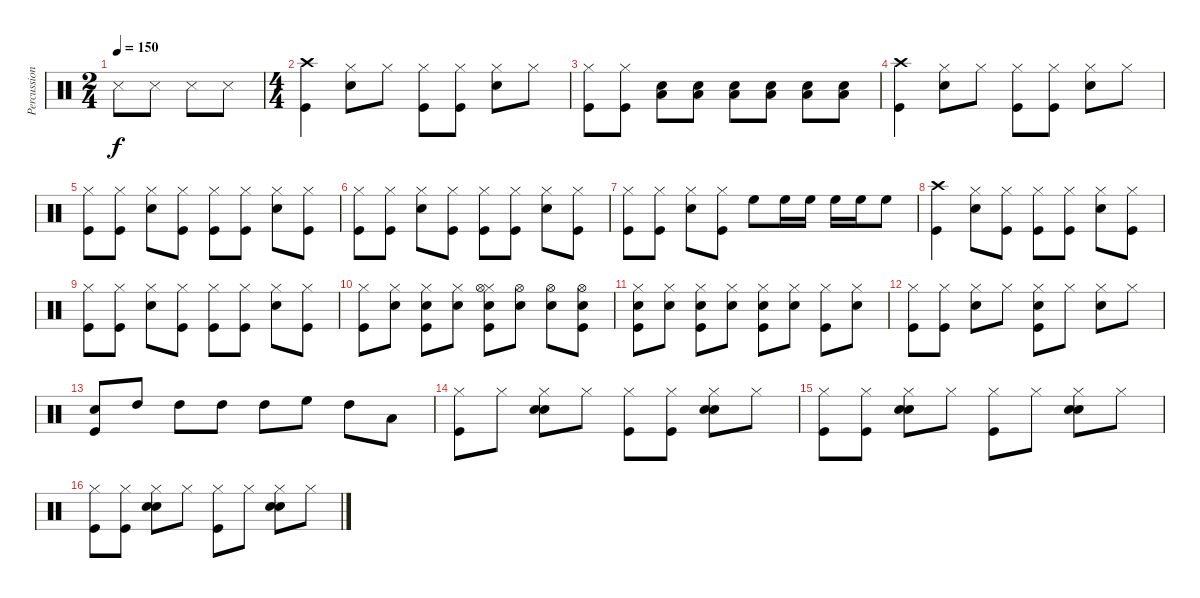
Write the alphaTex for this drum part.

\track ("Percussion" "Percussion") {instrument percussion}
\staff {score}
\articulation defaults
\ts (2 4)
\tempo 150
\clef neutral
\ks c "Snare (side stick) 3".8{dy f} "Snare (side stick) 3".8 "Snare (side stick) 3".8 "Snare (side stick) 3".8
|
\ts (4 4)
("Crash high (hit)" "Kick (hit)").4 ("Hi-Hat (closed)" "Snare (hit) 2").8 "Hi-Hat (closed)".8 ("Hi-Hat (closed)" "Kick (hit)").8 ("Hi-Hat (closed)" "Kick (hit)").8 ("Hi-Hat (closed)" "Snare (hit) 2").8 "Hi-Hat (closed)".8 |
("Hi-Hat (closed)" "Kick (hit)").8 ("Hi-Hat (closed)" "Kick (hit)").8 ("Snare (hit) 2" "Low Tom (hit)").8 ("Snare (hit) 2" "Low Tom (hit)").8 ("Snare (hit) 2" "Low Tom (hit)").8 ("Snare (hit) 2" "Low Tom (hit)").8 ("Snare (hit) 2" "Low Tom (hit)").8 ("Snare (hit) 2" "Low Tom (hit)").8 |
("Crash high (hit)" "Kick (hit)").4 ("Hi-Hat (closed)" "Snare (hit) 2").8 "Hi-Hat (closed)".8 ("Hi-Hat (closed)" "Kick (hit)").8 ("Hi-Hat (closed)" "Kick (hit)").8 ("Hi-Hat (closed)" "Snare (hit) 2").8 "Hi-Hat (closed)".8 |
("Hi-Hat (closed)" "Kick (hit)").8 ("Hi-Hat (closed)" "Kick (hit)").8 ("Hi-Hat (closed)" "Snare (hit) 2").8 ("Hi-Hat (closed)" "Kick (hit)").8 ("Hi-Hat (closed)" "Kick (hit)").8 ("Hi-Hat (closed)" "Kick (hit)").8 ("Hi-Hat (closed)" "Snare (hit) 2").8 ("Hi-Hat (closed)" "Kick (hit)").8 |
("Hi-Hat (closed)" "Kick (hit)").8 ("Hi-Hat (closed)" "Kick (hit)").8 ("Hi-Hat (closed)" "Snare (hit) 2").8 ("Hi-Hat (closed)" "Kick (hit)").8 ("Hi-Hat (closed)" "Kick (hit)").8 ("Hi-Hat (closed)" "Kick (hit)").8 ("Hi-Hat (closed)" "Snare (hit) 2").8 ("Hi-Hat (closed)" "Kick (hit)").8 |
("Hi-Hat (closed)" "Kick (hit)").8 ("Hi-Hat (closed)" "Kick (hit)").8 ("Hi-Hat (closed)" "Snare (hit) 2").8 ("Hi-Hat (closed)" "Kick (hit)").8 "High Floor Tom (hit)".8 "High Floor Tom (hit)".16 "High Floor Tom (hit)".16 "High Floor Tom (hit)".16 "High Floor Tom (hit)".16 "High Floor Tom (hit)".8 |
("Crash high (hit)" "Kick (hit)").4 ("Hi-Hat (closed)" "Snare (hit) 2").8 ("Hi-Hat (closed)" "Kick (hit)").8 ("Hi-Hat (closed)" "Kick (hit)").8 ("Hi-Hat (closed)" "Kick (hit)").8 ("Hi-Hat (closed)" "Snare (hit) 2").8 ("Hi-Hat (closed)" "Kick (hit)").8 |
("Hi-Hat (closed)" "Kick (hit)").8 ("Hi-Hat (closed)" "Kick (hit)").8 ("Hi-Hat (closed)" "Snare (hit) 2").8 ("Hi-Hat (closed)" "Kick (hit)").8 ("Hi-Hat (closed)" "Kick (hit)").8 ("Hi-Hat (closed)" "Kick (hit)").8 ("Hi-Hat (closed)" "Snare (hit) 2").8 ("Hi-Hat (closed)" "Kick (hit)").8 |
("Hi-Hat (closed)" "Kick (hit)").8 ("Hi-Hat (closed)" "Snare (hit) 2").8 ("Hi-Hat (closed)" "Snare (hit) 2" "Kick (hit)").8 ("Hi-Hat (closed)" "Snare (hit) 2").8 ("Hi-Hat (closed)" "Hi-Hat (open)" "Snare (hit) 2" "Kick (hit)").8 ("Hi-Hat (open)" "Snare (hit) 2").8 ("Hi-Hat (open)" "Snare (hit) 2").8 ("Hi-Hat (open)" "Snare (hit) 2" "Kick (hit)").8 |
("Hi-Hat (closed)" "Snare (hit) 2" "Kick (hit)").8 ("Hi-Hat (closed)" "Snare (hit) 2").8 ("Hi-Hat (closed)" "Snare (hit) 2" "Kick (hit)").8 ("Hi-Hat (closed)" "Snare (hit) 2").8 ("Hi-Hat (closed)" "Snare (hit) 2" "Kick (hit)").8 ("Hi-Hat (closed)" "Snare (hit) 2").8 ("Hi-Hat (closed)" "Kick (hit)").8 ("Hi-Hat (closed)" "Snare (hit) 2").8 |
("Hi-Hat (closed)" "Kick (hit)").8 ("Hi-Hat (closed)" "Kick (hit)").8 ("Hi-Hat (closed)" "Snare (hit) 2").8 "Hi-Hat (closed)".8 ("Hi-Hat (closed)" "Snare (hit) 2" "Kick (hit)").8 "Hi-Hat (closed)".8 ("Hi-Hat (closed)" "Snare (hit) 2").8 "Hi-Hat (closed)".8 |
("Snare (hit) 2" "Kick (hit)").8 "High Tom (hit)".8 "High Tom (hit)".8 "High Tom (hit)".8 "High Tom (hit)".8 "High Floor Tom (hit)".8 "High Tom (hit)".8 "Low Tom (hit)".8 |
("Hi-Hat (closed)" "Kick (hit)").8 "Hi-Hat (closed)".8 ("Hi-Hat (closed)" "Hand Clap (hit)" "Snare (hit) 2").8 "Hi-Hat (closed)".8 ("Hi-Hat (closed)" "Kick (hit)").8 ("Hi-Hat (closed)" "Kick (hit)").8 ("Hi-Hat (closed)" "Hand Clap (hit)" "Snare (hit) 2").8 "Hi-Hat (closed)".8 |
("Hi-Hat (closed)" "Kick (hit)").8 ("Hi-Hat (closed)" "Kick (hit)").8 ("Hi-Hat (closed)" "Hand Clap (hit)" "Snare (hit) 2").8 "Hi-Hat (closed)".8 ("Hi-Hat (closed)" "Kick (hit)").8 "Hi-Hat (closed)".8 ("Hi-Hat (closed)" "Hand Clap (hit)" "Snare (hit) 2").8 "Hi-Hat (closed)".8 |
("Hi-Hat (closed)" "Kick (hit)").8 ("Hi-Hat (closed)" "Kick (hit)").8 ("Hi-Hat (closed)" "Hand Clap (hit)" "Snare (hit) 2").8 "Hi-Hat (closed)".8 ("Hi-Hat (closed)" "Kick (hit)").8 "Hi-Hat (closed)".8 ("Hi-Hat (closed)" "Hand Clap (hit)" "Snare (hit) 2").8 "Hi-Hat (closed)".8
